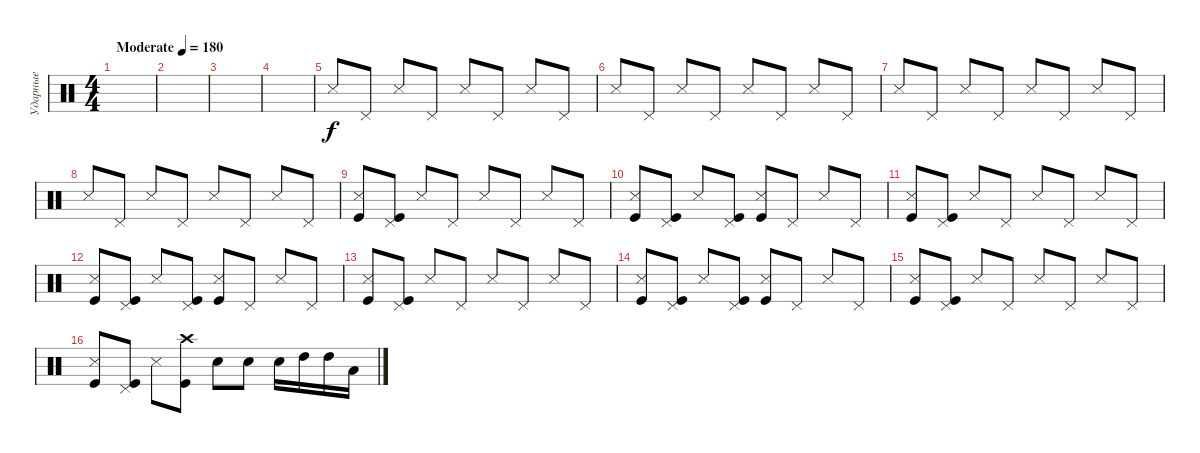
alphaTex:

\track ("Ударные" "Ударные") {instrument percussion}
\staff {score}
\articulation defaults
\ts (4 4)
\tempo (180 "Moderate")
\clef neutral
\ks c
|
|
|
|
"Snare (side stick) 3".8 "Pedal Hi-Hat (hit)".8 "Snare (side stick) 3".8 "Pedal Hi-Hat (hit)".8 "Snare (side stick) 3".8 "Pedal Hi-Hat (hit)".8 "Snare (side stick) 3".8 "Pedal Hi-Hat (hit)".8 |
"Snare (side stick) 3".8 "Pedal Hi-Hat (hit)".8 "Snare (side stick) 3".8 "Pedal Hi-Hat (hit)".8 "Snare (side stick) 3".8 "Pedal Hi-Hat (hit)".8 "Snare (side stick) 3".8 "Pedal Hi-Hat (hit)".8 |
"Snare (side stick) 3".8 "Pedal Hi-Hat (hit)".8 "Snare (side stick) 3".8 "Pedal Hi-Hat (hit)".8 "Snare (side stick) 3".8 "Pedal Hi-Hat (hit)".8 "Snare (side stick) 3".8 "Pedal Hi-Hat (hit)".8 |
"Snare (side stick) 3".8 "Pedal Hi-Hat (hit)".8 "Snare (side stick) 3".8 "Pedal Hi-Hat (hit)".8 "Snare (side stick) 3".8 "Pedal Hi-Hat (hit)".8 "Snare (side stick) 3".8 "Pedal Hi-Hat (hit)".8 |
("Snare (side stick) 3" "Kick (hit)").8 ("Pedal Hi-Hat (hit)" "Kick (hit)").8 "Snare (side stick) 3".8 "Pedal Hi-Hat (hit)".8 "Snare (side stick) 3".8 "Pedal Hi-Hat (hit)".8 "Snare (side stick) 3".8 "Pedal Hi-Hat (hit)".8 |
("Snare (side stick) 3" "Kick (hit)").8 ("Pedal Hi-Hat (hit)" "Kick (hit)").8 "Snare (side stick) 3".8 ("Pedal Hi-Hat (hit)" "Kick (hit)").8 ("Snare (side stick) 3" "Kick (hit)").8 "Pedal Hi-Hat (hit)".8 "Snare (side stick) 3".8 "Pedal Hi-Hat (hit)".8 |
("Snare (side stick) 3" "Kick (hit)").8 ("Pedal Hi-Hat (hit)" "Kick (hit)").8 "Snare (side stick) 3".8 "Pedal Hi-Hat (hit)".8 "Snare (side stick) 3".8 "Pedal Hi-Hat (hit)".8 "Snare (side stick) 3".8 "Pedal Hi-Hat (hit)".8 |
("Snare (side stick) 3" "Kick (hit)").8 ("Pedal Hi-Hat (hit)" "Kick (hit)").8 "Snare (side stick) 3".8 ("Pedal Hi-Hat (hit)" "Kick (hit)").8 ("Snare (side stick) 3" "Kick (hit)").8 "Pedal Hi-Hat (hit)".8 "Snare (side stick) 3".8 "Pedal Hi-Hat (hit)".8 |
("Snare (side stick) 3" "Kick (hit)").8 ("Pedal Hi-Hat (hit)" "Kick (hit)").8 "Snare (side stick) 3".8 "Pedal Hi-Hat (hit)".8 "Snare (side stick) 3".8 "Pedal Hi-Hat (hit)".8 "Snare (side stick) 3".8 "Pedal Hi-Hat (hit)".8 |
("Snare (side stick) 3" "Kick (hit)").8 ("Pedal Hi-Hat (hit)" "Kick (hit)").8 "Snare (side stick) 3".8 ("Pedal Hi-Hat (hit)" "Kick (hit)").8 ("Snare (side stick) 3" "Kick (hit)").8 "Pedal Hi-Hat (hit)".8 "Snare (side stick) 3".8 "Pedal Hi-Hat (hit)".8 |
("Snare (side stick) 3" "Kick (hit)").8 ("Pedal Hi-Hat (hit)" "Kick (hit)").8 "Snare (side stick) 3".8 "Pedal Hi-Hat (hit)".8 "Snare (side stick) 3".8 "Pedal Hi-Hat (hit)".8 "Snare (side stick) 3".8 "Pedal Hi-Hat (hit)".8 |
("Snare (side stick) 3" "Kick (hit)").8 ("Pedal Hi-Hat (hit)" "Kick (hit)").8 "Snare (side stick) 3".8 ("Crash high (hit)" "Kick (hit)").8 "Electric Snare (hit)".8 "Electric Snare (hit)".8 "Electric Snare (hit)".16 "High Tom (hit)".16 "High Tom (hit)".16 "Low Tom (hit)".16
